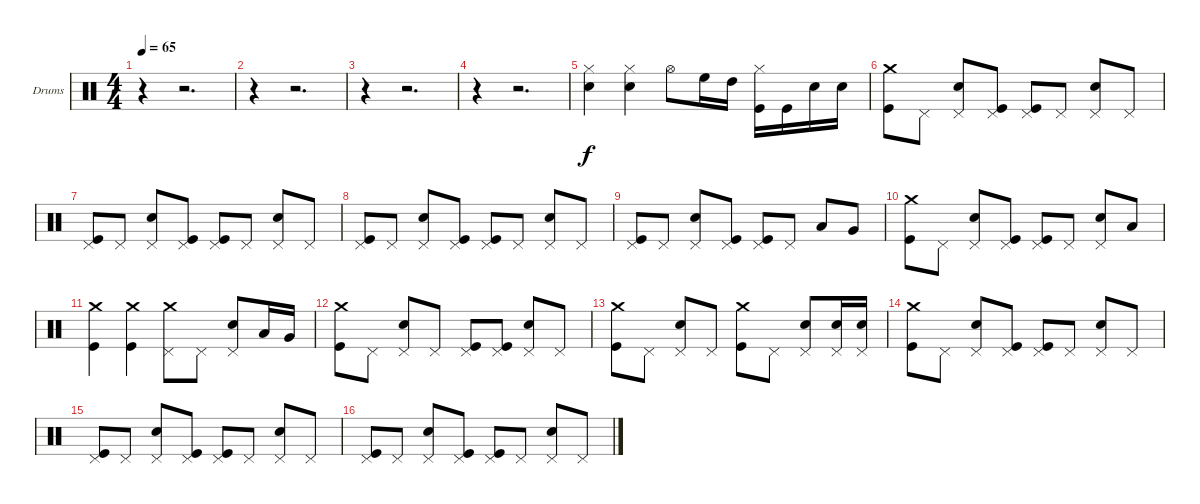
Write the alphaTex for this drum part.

\bracketExtendMode groupsimilarinstruments
\firstSystemTrackNameOrientation horizontal
\otherSystemsTrackNameOrientation horizontal
\track ("Drumkit" "Drums") {instrument percussion}
\staff {score}
\articulation defaults
\ts (4 4)
\tempo 65
\clef neutral
\ks c
r.4{dy f} r.2{d} |
r.4 r.2{d} |
r.4 r.2{d} |
r.4 r.2{d} |
("Snare (hit) 2" "Hi-Hat (closed)").4 ("Snare (hit) 2" "Hi-Hat (closed)").4 "Hi-Hat (open)".8 "High Floor Tom (hit)".16 "High Tom (hit)".16 ("Kick (hit)" "Hi-Hat (closed)").16 "Kick (hit)".16 "Snare (hit) 2".16 "Snare (hit) 2".16 |
("Crash medium (hit)" "Kick (hit)").8 "Pedal Hi-Hat (hit)".8 ("Pedal Hi-Hat (hit)" "Snare (hit) 2").8 ("Pedal Hi-Hat (hit)" "Kick (hit)").8 ("Pedal Hi-Hat (hit)" "Kick (hit)").8 "Pedal Hi-Hat (hit)".8 ("Pedal Hi-Hat (hit)" "Snare (hit) 2").8 "Pedal Hi-Hat (hit)".8 |
("Pedal Hi-Hat (hit)" "Kick (hit)").8 "Pedal Hi-Hat (hit)".8 ("Pedal Hi-Hat (hit)" "Snare (hit) 2").8 ("Pedal Hi-Hat (hit)" "Kick (hit)").8 ("Pedal Hi-Hat (hit)" "Kick (hit)").8 "Pedal Hi-Hat (hit)".8 ("Pedal Hi-Hat (hit)" "Snare (hit) 2").8 "Pedal Hi-Hat (hit)".8 |
("Pedal Hi-Hat (hit)" "Kick (hit)").8 "Pedal Hi-Hat (hit)".8 ("Pedal Hi-Hat (hit)" "Snare (hit) 2").8 ("Pedal Hi-Hat (hit)" "Kick (hit)").8 ("Pedal Hi-Hat (hit)" "Kick (hit)").8 "Pedal Hi-Hat (hit)".8 ("Pedal Hi-Hat (hit)" "Snare (hit) 2").8 "Pedal Hi-Hat (hit)".8 |
("Pedal Hi-Hat (hit)" "Kick (hit)").8 "Pedal Hi-Hat (hit)".8 ("Pedal Hi-Hat (hit)" "Snare (hit) 2").8 ("Pedal Hi-Hat (hit)" "Kick (hit)").8 ("Pedal Hi-Hat (hit)" "Kick (hit)").8 "Pedal Hi-Hat (hit)".8 "Low Tom (hit)".8 "Very Low Tom (hit)".8 |
("Crash medium (hit)" "Kick (hit)").8 "Pedal Hi-Hat (hit)".8 ("Pedal Hi-Hat (hit)" "Snare (hit) 2").8 ("Pedal Hi-Hat (hit)" "Kick (hit)").8 ("Pedal Hi-Hat (hit)" "Kick (hit)").8 "Pedal Hi-Hat (hit)".8 ("Pedal Hi-Hat (hit)" "Snare (hit) 2").8 "Low Tom (hit)".8 |
("Crash medium (hit)" "Kick (hit)").4 ("Crash medium (hit)" "Kick (hit)").4 ("Pedal Hi-Hat (hit)" "Crash medium (hit)").8 "Pedal Hi-Hat (hit)".8 ("Pedal Hi-Hat (hit)" "Snare (hit) 2").8 "Low Tom (hit)".16 "Very Low Tom (hit)".16 |
("Crash medium (hit)" "Kick (hit)").8 "Pedal Hi-Hat (hit)".8 ("Pedal Hi-Hat (hit)" "Snare (hit) 2").8 "Pedal Hi-Hat (hit)".8 ("Pedal Hi-Hat (hit)" "Kick (hit)").8 ("Pedal Hi-Hat (hit)" "Kick (hit)").8 ("Pedal Hi-Hat (hit)" "Snare (hit) 2").8 "Pedal Hi-Hat (hit)".8 |
("Crash medium (hit)" "Kick (hit)").8 "Pedal Hi-Hat (hit)".8 ("Pedal Hi-Hat (hit)" "Snare (hit) 2").8 "Pedal Hi-Hat (hit)".8 ("Crash medium (hit)" "Kick (hit)").8 "Pedal Hi-Hat (hit)".8 ("Pedal Hi-Hat (hit)" "Snare (hit) 2").8 ("Pedal Hi-Hat (hit)" "Snare (hit) 2").16 ("Pedal Hi-Hat (hit)" "Snare (hit) 2").16 |
("Crash medium (hit)" "Kick (hit)").8 "Pedal Hi-Hat (hit)".8 ("Pedal Hi-Hat (hit)" "Snare (hit) 2").8 ("Pedal Hi-Hat (hit)" "Kick (hit)").8 ("Pedal Hi-Hat (hit)" "Kick (hit)").8 "Pedal Hi-Hat (hit)".8 ("Pedal Hi-Hat (hit)" "Snare (hit) 2").8 "Pedal Hi-Hat (hit)".8 |
("Pedal Hi-Hat (hit)" "Kick (hit)").8 "Pedal Hi-Hat (hit)".8 ("Pedal Hi-Hat (hit)" "Snare (hit) 2").8 ("Pedal Hi-Hat (hit)" "Kick (hit)").8 ("Pedal Hi-Hat (hit)" "Kick (hit)").8 "Pedal Hi-Hat (hit)".8 ("Pedal Hi-Hat (hit)" "Snare (hit) 2").8 "Pedal Hi-Hat (hit)".8 |
("Pedal Hi-Hat (hit)" "Kick (hit)").8 "Pedal Hi-Hat (hit)".8 ("Pedal Hi-Hat (hit)" "Snare (hit) 2").8 ("Pedal Hi-Hat (hit)" "Kick (hit)").8 ("Pedal Hi-Hat (hit)" "Kick (hit)").8 "Pedal Hi-Hat (hit)".8 ("Pedal Hi-Hat (hit)" "Snare (hit) 2").8 "Pedal Hi-Hat (hit)".8
